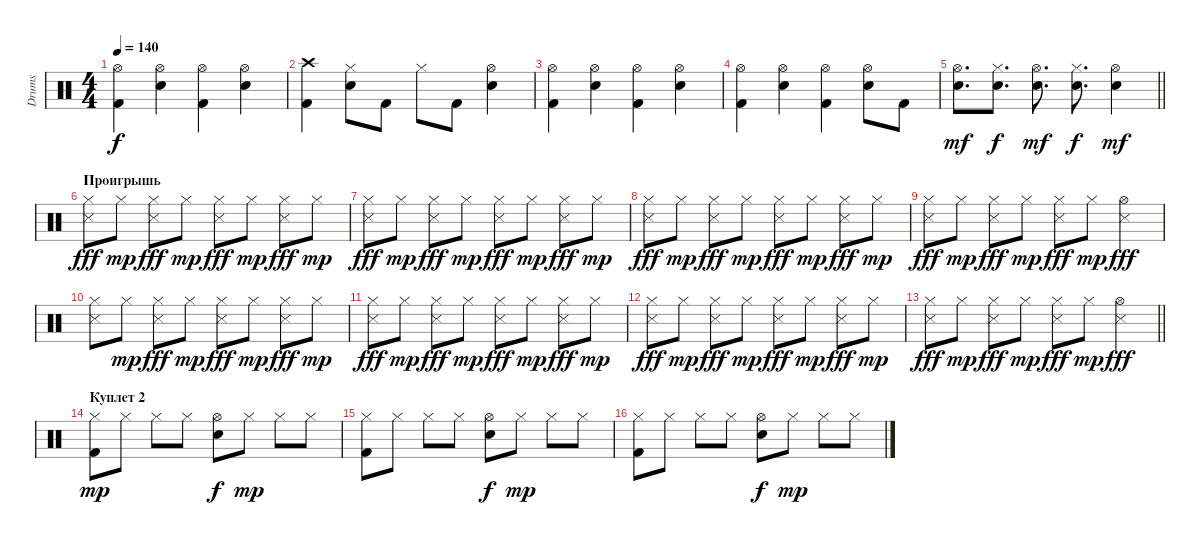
\track ("Drums" "Drums") {instrument percussion}
\staff {score}
\articulation defaults
\ts (4 4)
\tempo 140
\clef neutral
\ks c
("Hi-Hat (open)" "Kick (hit) 2").4{dy f} ("Hi-Hat (open)" "Snare (hit) 2").4 ("Hi-Hat (open)" "Kick (hit) 2").4 ("Hi-Hat (open)" "Snare (hit) 2").4 |
("Crash high (hit)" "Kick (hit) 2").4 ("Hi-Hat (closed)" "Snare (hit) 2").8 "Kick (hit) 2".8 "Hi-Hat (closed)".8 "Kick (hit) 2".8 ("Hi-Hat (open)" "Snare (hit) 2").4 |
("Hi-Hat (open)" "Kick (hit) 2").4 ("Hi-Hat (open)" "Snare (hit) 2").4 ("Hi-Hat (open)" "Kick (hit) 2").4 ("Hi-Hat (open)" "Snare (hit) 2").4 |
("Hi-Hat (open)" "Kick (hit) 2").4 ("Hi-Hat (open)" "Snare (hit) 2").4 ("Hi-Hat (open)" "Kick (hit) 2").4 ("Hi-Hat (open)" "Snare (hit) 2").8 "Kick (hit) 2".8 |
\barLineRight lightlight
("Hi-Hat (open)" "Snare (hit) 2").8{d dy mf} ("Hi-Hat (closed)" "Snare (hit) 2").8{d dy f} ("Hi-Hat (open)" "Snare (hit) 2").8{d dy mf} ("Hi-Hat (closed)" "Snare (hit) 2").8{d dy f} ("Hi-Hat (open)" "Snare (hit) 2").4{dy mf} |
\section ("" "Проигрышь")
("Hi-Hat (closed)" "Snare (side stick) 3").8{dy fff} "Hi-Hat (closed)".8{dy mp} ("Hi-Hat (closed)" "Snare (side stick) 3").8{dy fff} "Hi-Hat (closed)".8{dy mp} ("Hi-Hat (closed)" "Snare (side stick) 3").8{dy fff} "Hi-Hat (closed)".8{dy mp} ("Hi-Hat (closed)" "Snare (side stick) 3").8{dy fff} "Hi-Hat (closed)".8{dy mp} |
("Hi-Hat (closed)" "Snare (side stick) 3").8{dy fff} "Hi-Hat (closed)".8{dy mp} ("Hi-Hat (closed)" "Snare (side stick) 3").8{dy fff} "Hi-Hat (closed)".8{dy mp} ("Hi-Hat (closed)" "Snare (side stick) 3").8{dy fff} "Hi-Hat (closed)".8{dy mp} ("Hi-Hat (closed)" "Snare (side stick) 3").8{dy fff} "Hi-Hat (closed)".8{dy mp} |
("Hi-Hat (closed)" "Snare (side stick) 3").8{dy fff} "Hi-Hat (closed)".8{dy mp} ("Hi-Hat (closed)" "Snare (side stick) 3").8{dy fff} "Hi-Hat (closed)".8{dy mp} ("Hi-Hat (closed)" "Snare (side stick) 3").8{dy fff} "Hi-Hat (closed)".8{dy mp} ("Hi-Hat (closed)" "Snare (side stick) 3").8{dy fff} "Hi-Hat (closed)".8{dy mp} |
("Hi-Hat (closed)" "Snare (side stick) 3").8{dy fff} "Hi-Hat (closed)".8{dy mp} ("Hi-Hat (closed)" "Snare (side stick) 3").8{dy fff} "Hi-Hat (closed)".8{dy mp} ("Hi-Hat (closed)" "Snare (side stick) 3").8{dy fff} "Hi-Hat (closed)".8{dy mp} ("Hi-Hat (open)" "Snare (side stick) 3").4{dy fff} |
("Hi-Hat (closed)" "Snare (side stick) 3").8 "Hi-Hat (closed)".8{dy mp} ("Hi-Hat (closed)" "Snare (side stick) 3").8{dy fff} "Hi-Hat (closed)".8{dy mp} ("Hi-Hat (closed)" "Snare (side stick) 3").8{dy fff} "Hi-Hat (closed)".8{dy mp} ("Hi-Hat (closed)" "Snare (side stick) 3").8{dy fff} "Hi-Hat (closed)".8{dy mp} |
("Hi-Hat (closed)" "Snare (side stick) 3").8{dy fff} "Hi-Hat (closed)".8{dy mp} ("Hi-Hat (closed)" "Snare (side stick) 3").8{dy fff} "Hi-Hat (closed)".8{dy mp} ("Hi-Hat (closed)" "Snare (side stick) 3").8{dy fff} "Hi-Hat (closed)".8{dy mp} ("Hi-Hat (closed)" "Snare (side stick) 3").8{dy fff} "Hi-Hat (closed)".8{dy mp} |
("Hi-Hat (closed)" "Snare (side stick) 3").8{dy fff} "Hi-Hat (closed)".8{dy mp} ("Hi-Hat (closed)" "Snare (side stick) 3").8{dy fff} "Hi-Hat (closed)".8{dy mp} ("Hi-Hat (closed)" "Snare (side stick) 3").8{dy fff} "Hi-Hat (closed)".8{dy mp} ("Hi-Hat (closed)" "Snare (side stick) 3").8{dy fff} "Hi-Hat (closed)".8{dy mp} |
\barLineRight lightlight
("Hi-Hat (closed)" "Snare (side stick) 3").8{dy fff} "Hi-Hat (closed)".8{dy mp} ("Hi-Hat (closed)" "Snare (side stick) 3").8{dy fff} "Hi-Hat (closed)".8{dy mp} ("Hi-Hat (closed)" "Snare (side stick) 3").8{dy fff} "Hi-Hat (closed)".8{dy mp} ("Hi-Hat (open)" "Snare (side stick) 3").4{dy fff} |
\section ("" "Куплет 2")
("Hi-Hat (closed)" "Kick (hit) 2").8{dy mp} "Hi-Hat (closed)".8 "Hi-Hat (closed)".8 "Hi-Hat (closed)".8 ("Hi-Hat (open)" "Snare (hit) 2").8{dy f} "Hi-Hat (closed)".8{dy mp} "Hi-Hat (closed)".8 "Hi-Hat (closed)".8 |
("Hi-Hat (closed)" "Kick (hit) 2").8 "Hi-Hat (closed)".8 "Hi-Hat (closed)".8 "Hi-Hat (closed)".8 ("Hi-Hat (open)" "Snare (hit) 2").8{dy f} "Hi-Hat (closed)".8{dy mp} "Hi-Hat (closed)".8 "Hi-Hat (closed)".8 |
("Hi-Hat (closed)" "Kick (hit) 2").8 "Hi-Hat (closed)".8 "Hi-Hat (closed)".8 "Hi-Hat (closed)".8 ("Hi-Hat (open)" "Snare (hit) 2").8{dy f} "Hi-Hat (closed)".8{dy mp} "Hi-Hat (closed)".8 "Hi-Hat (closed)".8
